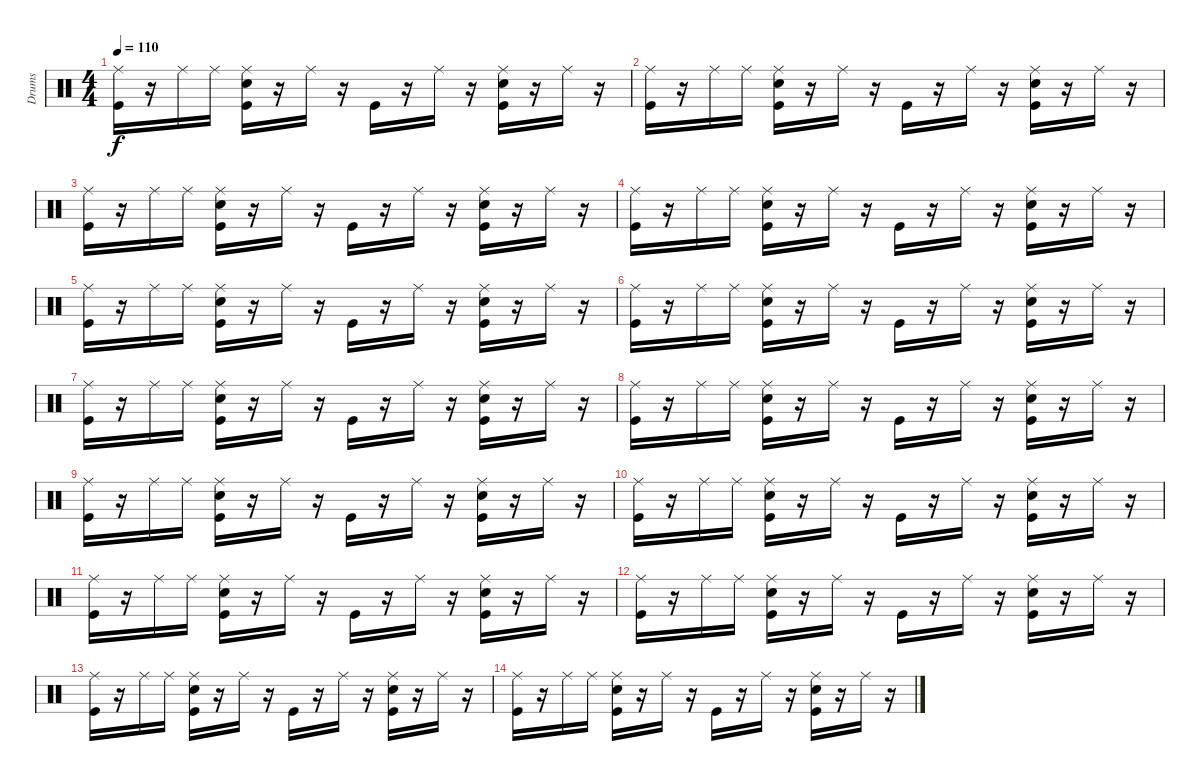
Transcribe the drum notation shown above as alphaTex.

\track ("Drums" "Drums") {instrument percussion}
\staff {score}
\articulation defaults
\ts (4 4)
\tempo 110
\clef neutral
\ks c
("Kick (hit)" "Ride (middle)").16{dy f} r.16 "Ride (middle)".16 "Ride (middle)".16 ("Snare (hit) 2" "Ride (middle)" "Kick (hit)").16 r.16 "Ride (middle)".16 r.16 "Kick (hit)".16 r.16 "Ride (middle)".16 r.16 ("Snare (hit) 2" "Ride (middle)" "Kick (hit)").16 r.16 "Ride (middle)".16 r.16 |
("Kick (hit)" "Ride (middle)").16 r.16 "Ride (middle)".16 "Ride (middle)".16 ("Snare (hit) 2" "Ride (middle)" "Kick (hit)").16 r.16 "Ride (middle)".16 r.16 "Kick (hit)".16 r.16 "Ride (middle)".16 r.16 ("Snare (hit) 2" "Ride (middle)" "Kick (hit)").16 r.16 "Ride (middle)".16 r.16 |
("Kick (hit)" "Ride (middle)").16 r.16 "Ride (middle)".16 "Ride (middle)".16 ("Snare (hit) 2" "Ride (middle)" "Kick (hit)").16 r.16 "Ride (middle)".16 r.16 "Kick (hit)".16 r.16 "Ride (middle)".16 r.16 ("Snare (hit) 2" "Ride (middle)" "Kick (hit)").16 r.16 "Ride (middle)".16 r.16 |
("Kick (hit)" "Ride (middle)").16 r.16 "Ride (middle)".16 "Ride (middle)".16 ("Snare (hit) 2" "Ride (middle)" "Kick (hit)").16 r.16 "Ride (middle)".16 r.16 "Kick (hit)".16 r.16 "Ride (middle)".16 r.16 ("Snare (hit) 2" "Ride (middle)" "Kick (hit)").16 r.16 "Ride (middle)".16 r.16 |
("Kick (hit)" "Ride (middle)").16 r.16 "Ride (middle)".16 "Ride (middle)".16 ("Snare (hit) 2" "Ride (middle)" "Kick (hit)").16 r.16 "Ride (middle)".16 r.16 "Kick (hit)".16 r.16 "Ride (middle)".16 r.16 ("Snare (hit) 2" "Ride (middle)" "Kick (hit)").16 r.16 "Ride (middle)".16 r.16 |
("Kick (hit)" "Ride (middle)").16 r.16 "Ride (middle)".16 "Ride (middle)".16 ("Snare (hit) 2" "Ride (middle)" "Kick (hit)").16 r.16 "Ride (middle)".16 r.16 "Kick (hit)".16 r.16 "Ride (middle)".16 r.16 ("Snare (hit) 2" "Ride (middle)" "Kick (hit)").16 r.16 "Ride (middle)".16 r.16 |
("Kick (hit)" "Ride (middle)").16{volume 11} r.16 "Ride (middle)".16{volume 11} "Ride (middle)".16{volume 11} ("Snare (hit) 2" "Ride (middle)" "Kick (hit)").16 r.16 "Ride (middle)".16{volume 11} r.16 "Kick (hit)".16{volume 11} r.16 "Ride (middle)".16{volume 10} r.16 ("Snare (hit) 2" "Ride (middle)" "Kick (hit)").16{volume 10} r.16 "Ride (middle)".16{volume 10} r.16 |
("Kick (hit)" "Ride (middle)").16{volume 10} r.16 "Ride (middle)".16{volume 10} "Ride (middle)".16{volume 10} ("Snare (hit) 2" "Ride (middle)" "Kick (hit)").16{volume 10} r.16 "Ride (middle)".16{volume 9} r.16 "Kick (hit)".16{volume 9} r.16 "Ride (middle)".16{volume 9} r.16 ("Snare (hit) 2" "Ride (middle)" "Kick (hit)").16{volume 9} r.16 "Ride (middle)".16{volume 9} r.16 |
("Kick (hit)" "Ride (middle)").16{volume 8} r.16 "Ride (middle)".16{volume 8} "Ride (middle)".16{volume 8} ("Snare (hit) 2" "Ride (middle)" "Kick (hit)").16{volume 8} r.16 "Ride (middle)".16{volume 8} r.16 "Kick (hit)".16{volume 8} r.16 "Ride (middle)".16{volume 8} r.16 ("Snare (hit) 2" "Ride (middle)" "Kick (hit)").16{volume 8} r.16 "Ride (middle)".16{volume 7} r.16 |
("Kick (hit)" "Ride (middle)").16{volume 7} r.16 "Ride (middle)".16{volume 7} "Ride (middle)".16 ("Snare (hit) 2" "Ride (middle)" "Kick (hit)").16{volume 7} r.16 "Ride (middle)".16{volume 6} r.16 "Kick (hit)".16{volume 6} r.16 "Ride (middle)".16{volume 6} r.16 ("Snare (hit) 2" "Ride (middle)" "Kick (hit)").16{volume 6} r.16 "Ride (middle)".16{volume 6} r.16 |
("Kick (hit)" "Ride (middle)").16{volume 6} r.16 "Ride (middle)".16{volume 6} "Ride (middle)".16{volume 5} ("Snare (hit) 2" "Ride (middle)" "Kick (hit)").16 r.16 "Ride (middle)".16{volume 5} r.16 "Kick (hit)".16{volume 5} r.16 "Ride (middle)".16{volume 5} r.16 ("Snare (hit) 2" "Ride (middle)" "Kick (hit)").16{volume 5} r.16 "Ride (middle)".16{volume 4} r.16 |
("Kick (hit)" "Ride (middle)").16{volume 4} r.16 "Ride (middle)".16{volume 4} "Ride (middle)".16{volume 4} ("Snare (hit) 2" "Ride (middle)" "Kick (hit)").16{volume 4} r.16 "Ride (middle)".16{volume 4} r.16 "Kick (hit)".16{volume 4} r.16 "Ride (middle)".16{volume 3} r.16 ("Snare (hit) 2" "Ride (middle)" "Kick (hit)").16{volume 3} r.16 "Ride (middle)".16{volume 3} r.16 |
("Kick (hit)" "Ride (middle)").16{volume 3} r.16 "Ride (middle)".16{volume 3} "Ride (middle)".16{volume 3} ("Snare (hit) 2" "Ride (middle)" "Kick (hit)").16{volume 2} r.16 "Ride (middle)".16{volume 2} r.16 "Kick (hit)".16{volume 2} r.16 "Ride (middle)".16{volume 2} r.16 ("Snare (hit) 2" "Ride (middle)" "Kick (hit)").16{volume 2} r.16 "Ride (middle)".16{volume 2} r.16 |
("Kick (hit)" "Ride (middle)").16{volume 2} r.16 "Ride (middle)".16{volume 1} "Ride (middle)".16 ("Snare (hit) 2" "Ride (middle)" "Kick (hit)").16{volume 1} r.16 "Ride (middle)".16{volume 1} r.16 "Kick (hit)".16{volume 1} r.16 "Ride (middle)".16{volume 1} r.16 ("Snare (hit) 2" "Ride (middle)" "Kick (hit)").16{volume 0} r.16 "Ride (middle)".16{volume 0} r.16
